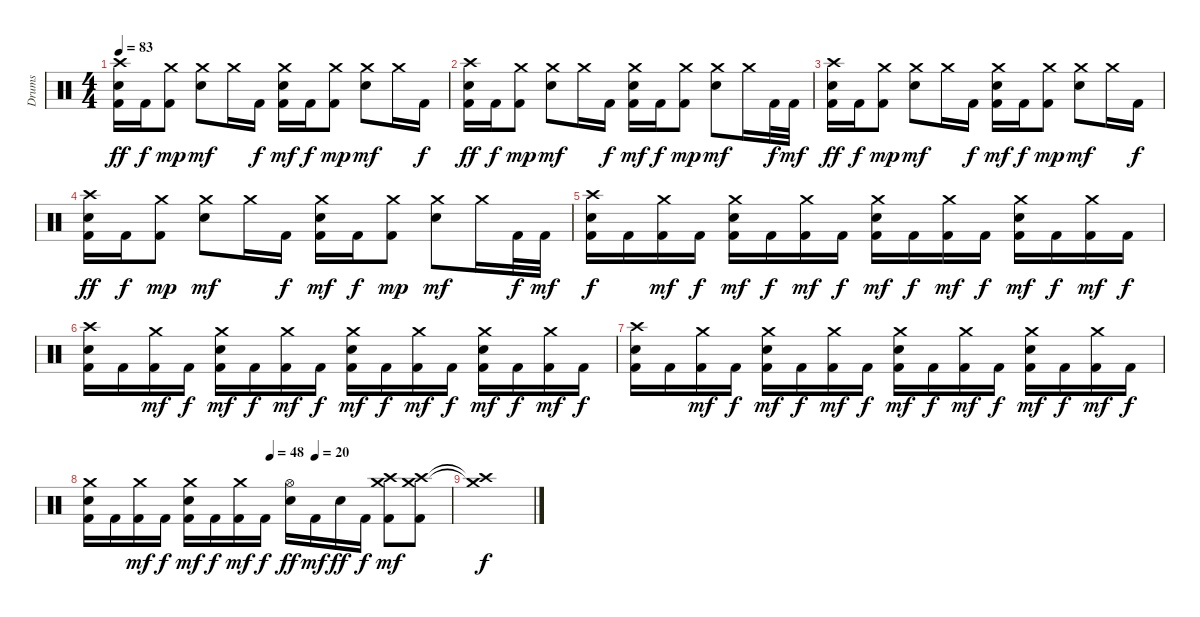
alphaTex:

\track ("Drums" "Drums") {instrument percussion}
\staff {score}
\articulation defaults
\ts (4 4)
\tempo 83
\clef neutral
\ks c
("Crash high (hit)" "Electric Snare (hit)" "Kick (hit) 2").16{dy ff} "Kick (hit) 2".16{dy f} ("Crash medium (hit)" "Kick (hit) 2").8{dy mp} ("Crash medium (hit)" "Electric Snare (hit)").8{dy mf} "Crash medium (hit)".16 "Kick (hit) 2".16{dy f} ("Crash medium (hit)" "Electric Snare (hit)" "Kick (hit) 2").16{dy mf} "Kick (hit) 2".16{dy f} ("Crash medium (hit)" "Kick (hit) 2").8{dy mp} ("Crash medium (hit)" "Electric Snare (hit)").8{dy mf} "Crash medium (hit)".16 "Kick (hit) 2".16{dy f} |
("Crash high (hit)" "Electric Snare (hit)" "Kick (hit) 2").16{dy ff} "Kick (hit) 2".16{dy f} ("Crash medium (hit)" "Kick (hit) 2").8{dy mp} ("Crash medium (hit)" "Electric Snare (hit)").8{dy mf} "Crash medium (hit)".16 "Kick (hit) 2".16{dy f} ("Crash medium (hit)" "Electric Snare (hit)" "Kick (hit) 2").16{dy mf} "Kick (hit) 2".16{dy f} ("Crash medium (hit)" "Kick (hit) 2").8{dy mp} ("Crash medium (hit)" "Electric Snare (hit)").8{dy mf} "Crash medium (hit)".16 "Kick (hit) 2".32{dy f} "Kick (hit) 2".32{dy mf} |
("Crash high (hit)" "Electric Snare (hit)" "Kick (hit) 2").16{dy ff} "Kick (hit) 2".16{dy f} ("Crash medium (hit)" "Kick (hit) 2").8{dy mp} ("Crash medium (hit)" "Electric Snare (hit)").8{dy mf} "Crash medium (hit)".16 "Kick (hit) 2".16{dy f} ("Crash medium (hit)" "Electric Snare (hit)" "Kick (hit) 2").16{dy mf} "Kick (hit) 2".16{dy f} ("Crash medium (hit)" "Kick (hit) 2").8{dy mp} ("Crash medium (hit)" "Electric Snare (hit)").8{dy mf} "Crash medium (hit)".16 "Kick (hit) 2".16{dy f} |
("Crash high (hit)" "Electric Snare (hit)" "Kick (hit) 2").16{dy ff} "Kick (hit) 2".16{dy f} ("Crash medium (hit)" "Kick (hit) 2").8{dy mp} ("Crash medium (hit)" "Electric Snare (hit)").8{dy mf} "Crash medium (hit)".16 "Kick (hit) 2".16{dy f} ("Crash medium (hit)" "Electric Snare (hit)" "Kick (hit) 2").16{dy mf} "Kick (hit) 2".16{dy f} ("Crash medium (hit)" "Kick (hit) 2").8{dy mp} ("Crash medium (hit)" "Electric Snare (hit)").8{dy mf} "Crash medium (hit)".16 "Kick (hit) 2".32{dy f} "Kick (hit) 2".32{dy mf} |
("Crash high (hit)" "Electric Snare (hit)" "Kick (hit) 2").16{dy f} "Kick (hit) 2".16 ("Crash medium (hit)" "Kick (hit) 2").16{dy mf} "Kick (hit) 2".16{dy f} ("Crash medium (hit)" "Electric Snare (hit)" "Kick (hit) 2").16{dy mf} "Kick (hit) 2".16{dy f} ("Crash medium (hit)" "Kick (hit) 2").16{dy mf} "Kick (hit) 2".16{dy f} ("Crash medium (hit)" "Electric Snare (hit)" "Kick (hit) 2").16{dy mf} "Kick (hit) 2".16{dy f} ("Crash medium (hit)" "Kick (hit) 2").16{dy mf} "Kick (hit) 2".16{dy f} ("Crash medium (hit)" "Electric Snare (hit)" "Kick (hit) 2").16{dy mf} "Kick (hit) 2".16{dy f} ("Crash medium (hit)" "Kick (hit) 2").16{dy mf} "Kick (hit) 2".16{dy f} |
("Crash high (hit)" "Electric Snare (hit)" "Kick (hit) 2").16 "Kick (hit) 2".16 ("Crash medium (hit)" "Kick (hit) 2").16{dy mf} "Kick (hit) 2".16{dy f} ("Crash medium (hit)" "Electric Snare (hit)" "Kick (hit) 2").16{dy mf} "Kick (hit) 2".16{dy f} ("Crash medium (hit)" "Kick (hit) 2").16{dy mf} "Kick (hit) 2".16{dy f} ("Crash medium (hit)" "Electric Snare (hit)" "Kick (hit) 2").16{dy mf} "Kick (hit) 2".16{dy f} ("Crash medium (hit)" "Kick (hit) 2").16{dy mf} "Kick (hit) 2".16{dy f} ("Crash medium (hit)" "Electric Snare (hit)" "Kick (hit) 2").16{dy mf} "Kick (hit) 2".16{dy f} ("Crash medium (hit)" "Kick (hit) 2").16{dy mf} "Kick (hit) 2".16{dy f} |
("Crash high (hit)" "Electric Snare (hit)" "Kick (hit) 2").16 "Kick (hit) 2".16 ("Crash medium (hit)" "Kick (hit) 2").16{dy mf} "Kick (hit) 2".16{dy f} ("Crash medium (hit)" "Electric Snare (hit)" "Kick (hit) 2").16{dy mf} "Kick (hit) 2".16{dy f} ("Crash medium (hit)" "Kick (hit) 2").16{dy mf} "Kick (hit) 2".16{dy f} ("Crash medium (hit)" "Electric Snare (hit)" "Kick (hit) 2").16{dy mf} "Kick (hit) 2".16{dy f} ("Crash medium (hit)" "Kick (hit) 2").16{dy mf} "Kick (hit) 2".16{dy f} ("Crash medium (hit)" "Electric Snare (hit)" "Kick (hit) 2").16{dy mf} "Kick (hit) 2".16{dy f} ("Crash medium (hit)" "Kick (hit) 2").16{dy mf} "Kick (hit) 2".16{dy f} |
\tempo (48 0.5)
\tempo (20 0.625)
("Crash medium (hit)" "Electric Snare (hit)" "Kick (hit) 2").16 "Kick (hit) 2".16 ("Crash medium (hit)" "Kick (hit) 2").16{dy mf} "Kick (hit) 2".16{dy f} ("Crash medium (hit)" "Electric Snare (hit)" "Kick (hit) 2").16{dy mf} "Kick (hit) 2".16{dy f} ("Crash medium (hit)" "Kick (hit) 2").16{dy mf} "Kick (hit) 2".16{dy f} ("Hi-Hat (open)" "Electric Snare (hit)").16{dy ff} "Kick (hit) 2".16{dy mf} "Electric Snare (hit)".16{dy ff} "Kick (hit) 2".16{dy f} ("Crash medium (hit)" "Crash high (hit)" "Kick (hit) 2").8{dy mf} ("Crash medium (hit)" "Crash high (hit)" "Kick (hit) 2").8 |
("Crash medium (hit)"{t} "Crash high (hit)"{t}).1{dy f}
